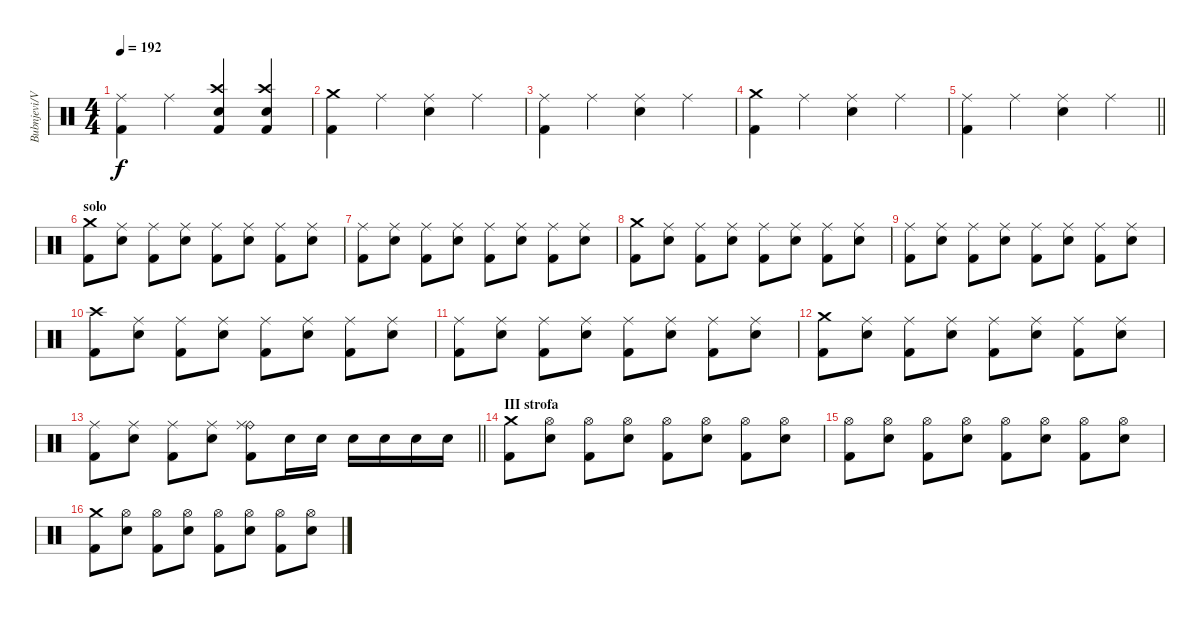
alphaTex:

\track ("Bubnjevi/Vestac Tlacitelj" "Bubnjevi/V") {instrument percussion}
\staff {score}
\articulation defaults
\ts (4 4)
\tempo 192
\clef neutral
\ks c
("Ride (middle)" "Kick (hit) 2").4{dy f} "Ride (middle)".4 ("Crash high (hit)" "Electric Snare (hit)" "Kick (hit) 2").4 ("Crash high (hit)" "Electric Snare (hit)" "Kick (hit) 2").4 |
("Crash medium (hit)" "Kick (hit) 2").4 "Ride (middle)".4 ("Ride (middle)" "Electric Snare (hit)").4 "Ride (middle)".4 |
("Ride (middle)" "Kick (hit) 2").4 "Ride (middle)".4 ("Ride (middle)" "Electric Snare (hit)").4 "Ride (middle)".4 |
("Crash medium (hit)" "Kick (hit) 2").4 "Ride (middle)".4 ("Ride (middle)" "Electric Snare (hit)").4 "Ride (middle)".4 |
\barLineRight lightlight
("Ride (middle)" "Kick (hit) 2").4 "Ride (middle)".4 ("Ride (middle)" "Electric Snare (hit)").4 "Ride (middle)".4 |
\section ("" "solo")
("Crash medium (hit)" "Kick (hit) 2").8 ("Ride (middle)" "Electric Snare (hit)").8 ("Ride (middle)" "Kick (hit) 2").8 ("Ride (middle)" "Electric Snare (hit)").8 ("Ride (middle)" "Kick (hit) 2").8 ("Ride (middle)" "Electric Snare (hit)").8 ("Ride (middle)" "Kick (hit) 2").8 ("Ride (middle)" "Electric Snare (hit)").8 |
("Ride (middle)" "Kick (hit) 2").8 ("Ride (middle)" "Electric Snare (hit)").8 ("Ride (middle)" "Kick (hit) 2").8 ("Ride (middle)" "Electric Snare (hit)").8 ("Ride (middle)" "Kick (hit) 2").8 ("Ride (middle)" "Electric Snare (hit)").8 ("Ride (middle)" "Kick (hit) 2").8 ("Ride (middle)" "Electric Snare (hit)").8 |
("Crash medium (hit)" "Kick (hit) 2").8 ("Ride (middle)" "Electric Snare (hit)").8 ("Ride (middle)" "Kick (hit) 2").8 ("Ride (middle)" "Electric Snare (hit)").8 ("Ride (middle)" "Kick (hit) 2").8 ("Ride (middle)" "Electric Snare (hit)").8 ("Ride (middle)" "Kick (hit) 2").8 ("Ride (middle)" "Electric Snare (hit)").8 |
("Ride (middle)" "Kick (hit) 2").8 ("Ride (middle)" "Electric Snare (hit)").8 ("Ride (middle)" "Kick (hit) 2").8 ("Ride (middle)" "Electric Snare (hit)").8 ("Ride (middle)" "Kick (hit) 2").8 ("Ride (middle)" "Electric Snare (hit)").8 ("Ride (middle)" "Kick (hit) 2").8 ("Ride (middle)" "Electric Snare (hit)").8 |
("Crash high (hit)" "Kick (hit) 2").8 ("Ride (middle)" "Electric Snare (hit)").8 ("Ride (middle)" "Kick (hit) 2").8 ("Ride (middle)" "Electric Snare (hit)").8 ("Ride (middle)" "Kick (hit) 2").8 ("Ride (middle)" "Electric Snare (hit)").8 ("Ride (middle)" "Kick (hit) 2").8 ("Ride (middle)" "Electric Snare (hit)").8 |
("Ride (middle)" "Kick (hit) 2").8 ("Ride (middle)" "Electric Snare (hit)").8 ("Ride (middle)" "Kick (hit) 2").8 ("Ride (middle)" "Electric Snare (hit)").8 ("Ride (middle)" "Kick (hit) 2").8 ("Ride (middle)" "Electric Snare (hit)").8 ("Ride (middle)" "Kick (hit) 2").8 ("Ride (middle)" "Electric Snare (hit)").8 |
("Crash medium (hit)" "Kick (hit) 2").8 ("Ride (middle)" "Electric Snare (hit)").8 ("Ride (middle)" "Kick (hit) 2").8 ("Ride (middle)" "Electric Snare (hit)").8 ("Ride (middle)" "Kick (hit) 2").8 ("Ride (middle)" "Electric Snare (hit)").8 ("Ride (middle)" "Kick (hit) 2").8 ("Ride (middle)" "Electric Snare (hit)").8 |
\barLineRight lightlight
("Ride (middle)" "Kick (hit) 2").8 ("Ride (middle)" "Electric Snare (hit)").8 ("Ride (middle)" "Kick (hit) 2").8 ("Ride (middle)" "Electric Snare (hit)").8 ("Ride (bell)" "Ride (middle)" "Kick (hit) 2").8 "Electric Snare (hit)".16 "Electric Snare (hit)".16 "Electric Snare (hit)".16 "Electric Snare (hit)".16 "Electric Snare (hit)".16 "Electric Snare (hit)".16 |
\section ("" "III strofa")
("Crash medium (hit)" "Kick (hit) 2").8 ("Hi-Hat (open)" "Electric Snare (hit)").8 ("Hi-Hat (open)" "Kick (hit) 2").8 ("Hi-Hat (open)" "Electric Snare (hit)").8 ("Hi-Hat (open)" "Kick (hit) 2").8 ("Hi-Hat (open)" "Electric Snare (hit)").8 ("Hi-Hat (open)" "Kick (hit) 2").8 ("Hi-Hat (open)" "Electric Snare (hit)").8 |
("Hi-Hat (open)" "Kick (hit) 2").8 ("Hi-Hat (open)" "Electric Snare (hit)").8 ("Hi-Hat (open)" "Kick (hit) 2").8 ("Hi-Hat (open)" "Electric Snare (hit)").8 ("Hi-Hat (open)" "Kick (hit) 2").8 ("Hi-Hat (open)" "Electric Snare (hit)").8 ("Hi-Hat (open)" "Kick (hit) 2").8 ("Hi-Hat (open)" "Electric Snare (hit)").8 |
("Crash medium (hit)" "Kick (hit) 2").8 ("Hi-Hat (open)" "Electric Snare (hit)").8 ("Hi-Hat (open)" "Kick (hit) 2").8 ("Hi-Hat (open)" "Electric Snare (hit)").8 ("Hi-Hat (open)" "Kick (hit) 2").8 ("Hi-Hat (open)" "Electric Snare (hit)").8 ("Hi-Hat (open)" "Kick (hit) 2").8 ("Hi-Hat (open)" "Electric Snare (hit)").8
